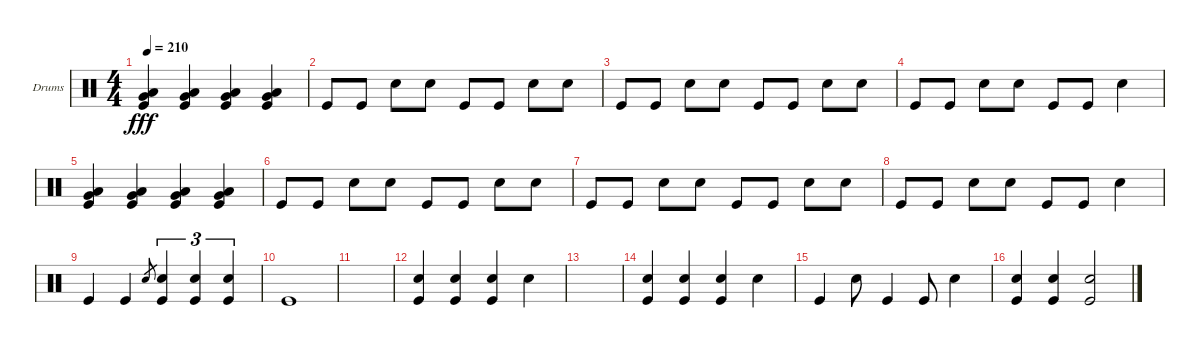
\defaultSystemsLayout 4
\bracketExtendMode groupsimilarinstruments
\firstSystemTrackNameOrientation horizontal
\otherSystemsTrackNameOrientation horizontal
\track ("Helders" "Drums") {instrument percussion}
\staff {score}
\articulation defaults
\ts (4 4)
\tempo 210
\clef neutral
\ks c
("Kick (hit)" "Very Low Tom (hit)" "Low Tom (hit)").4{dy fff} ("Kick (hit)" "Very Low Tom (hit)" "Low Tom (hit)").4 ("Kick (hit)" "Very Low Tom (hit)" "Low Tom (hit)").4 ("Kick (hit)" "Very Low Tom (hit)" "Low Tom (hit)").4 |
"Kick (hit)".8 "Kick (hit)".8 "Snare (hit) 2".8 "Snare (hit) 2".8 "Kick (hit)".8 "Kick (hit)".8 "Snare (hit) 2".8 "Snare (hit) 2".8 |
"Kick (hit)".8 "Kick (hit)".8 "Snare (hit) 2".8 "Snare (hit) 2".8 "Kick (hit)".8 "Kick (hit)".8 "Snare (hit) 2".8 "Snare (hit) 2".8 |
"Kick (hit)".8 "Kick (hit)".8 "Snare (hit) 2".8 "Snare (hit) 2".8 "Kick (hit)".8 "Kick (hit)".8 "Snare (hit) 2".4 |
("Kick (hit)" "Very Low Tom (hit)" "Low Tom (hit)").4 ("Kick (hit)" "Very Low Tom (hit)" "Low Tom (hit)").4 ("Kick (hit)" "Very Low Tom (hit)" "Low Tom (hit)").4 ("Kick (hit)" "Very Low Tom (hit)" "Low Tom (hit)").4 |
"Kick (hit)".8 "Kick (hit)".8 "Snare (hit) 2".8 "Snare (hit) 2".8 "Kick (hit)".8 "Kick (hit)".8 "Snare (hit) 2".8 "Snare (hit) 2".8 |
"Kick (hit)".8 "Kick (hit)".8 "Snare (hit) 2".8 "Snare (hit) 2".8 "Kick (hit)".8 "Kick (hit)".8 "Snare (hit) 2".8 "Snare (hit) 2".8 |
"Kick (hit)".8 "Kick (hit)".8 "Snare (hit) 2".8 "Snare (hit) 2".8 "Kick (hit)".8 "Kick (hit)".8 "Snare (hit) 2".4 |
"Kick (hit)".4 "Kick (hit)".4 "Snare (hit) 2".8{gr} ("Snare (hit) 2" "Kick (hit)").4{tu (3 2)} ("Snare (hit) 2" "Kick (hit)").4{tu (3 2)} ("Snare (hit) 2" "Kick (hit)").4{tu (3 2)} |
"Kick (hit)".1 |
|
("Snare (hit) 2" "Kick (hit)").4 ("Snare (hit) 2" "Kick (hit)").4 ("Snare (hit) 2" "Kick (hit)").4 "Snare (hit) 2".4 |
|
("Snare (hit) 2" "Kick (hit)").4 ("Snare (hit) 2" "Kick (hit)").4 ("Snare (hit) 2" "Kick (hit)").4 "Snare (hit) 2".4 |
"Kick (hit)".4 "Snare (hit) 2".8 "Kick (hit)".4 "Kick (hit)".8 "Snare (hit) 2".4 |
("Snare (hit) 2" "Kick (hit)").4 ("Snare (hit) 2" "Kick (hit)").4 ("Snare (hit) 2" "Kick (hit)").2
